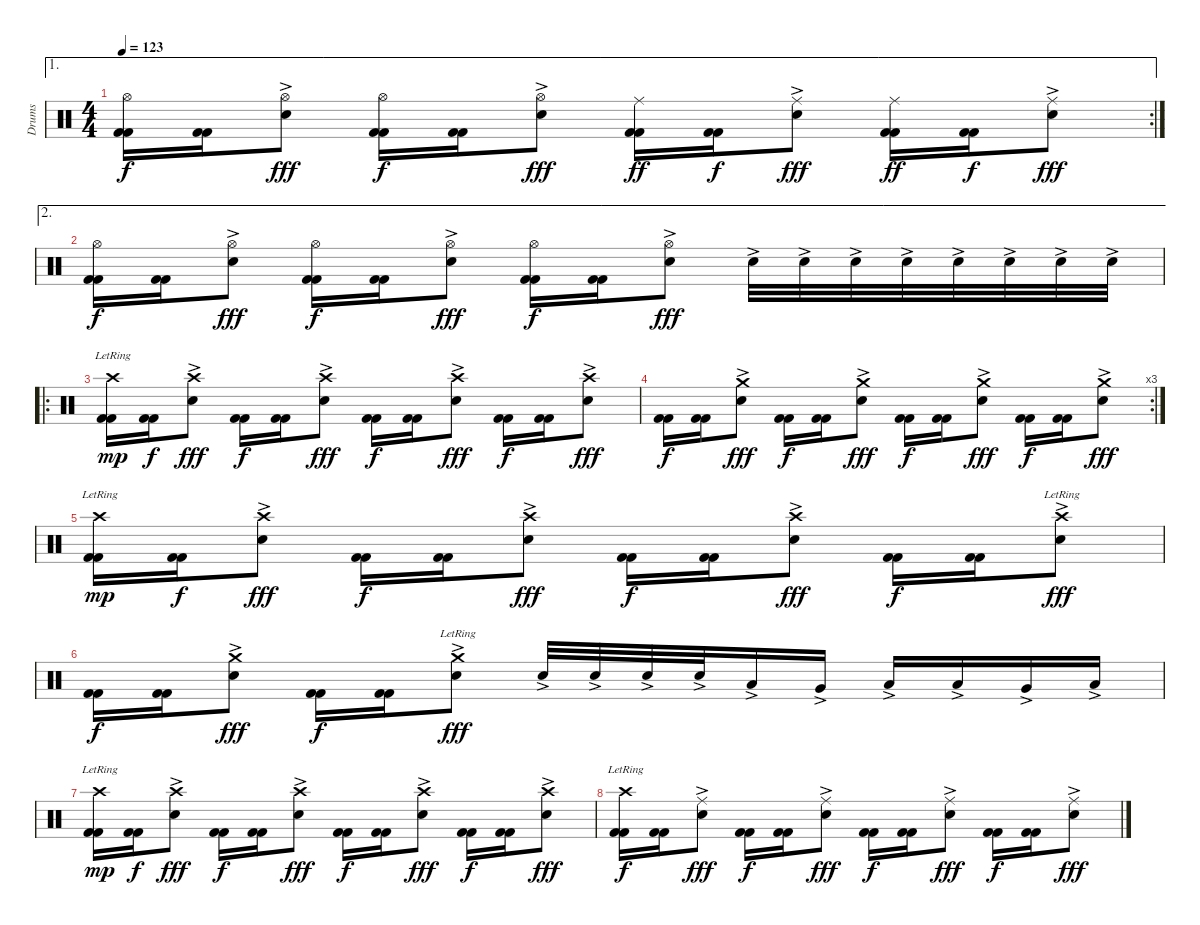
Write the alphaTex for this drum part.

\track ("Drums" "Drums") {instrument percussion}
\staff {score}
\articulation defaults
\ae 1
\rc 2
\ts (4 4)
\tempo 123
\clef neutral
\ks c
("Hi-Hat (open)" "Kick (hit) 2" "Kick (hit) 2").16{dy f} ("Kick (hit) 2" "Kick (hit) 2").16 ("Hi-Hat (open)" "Electric Snare (hit)"{ac}).8{dy fff} ("Hi-Hat (open)" "Kick (hit) 2" "Kick (hit) 2").16{dy f} ("Kick (hit) 2" "Kick (hit) 2").16 ("Hi-Hat (open)" "Electric Snare (hit)"{ac}).8{dy fff} ("Ride (middle)" "Kick (hit) 2" "Kick (hit) 2").16{dy ff} ("Kick (hit) 2" "Kick (hit) 2").16{dy f} ("Ride (middle)" "Electric Snare (hit)"{ac}).8{dy fff} ("Ride (middle)" "Kick (hit) 2" "Kick (hit) 2").16{dy ff} ("Kick (hit) 2" "Kick (hit) 2").16{dy f} ("Ride (middle)" "Electric Snare (hit)"{ac}).8{dy fff} |
\ae 2
("Hi-Hat (open)" "Kick (hit) 2" "Kick (hit) 2").16{dy f} ("Kick (hit) 2" "Kick (hit) 2").16 ("Hi-Hat (open)" "Electric Snare (hit)"{ac}).8{dy fff} ("Hi-Hat (open)" "Kick (hit) 2" "Kick (hit) 2").16{dy f} ("Kick (hit) 2" "Kick (hit) 2").16 ("Hi-Hat (open)" "Electric Snare (hit)"{ac}).8{dy fff} ("Hi-Hat (open)" "Kick (hit) 2" "Kick (hit) 2").16{dy f} ("Kick (hit) 2" "Kick (hit) 2").16 ("Hi-Hat (open)" "Electric Snare (hit)"{ac}).8{dy fff} "Electric Snare (hit)"{ac}.32 "Electric Snare (hit)"{ac}.32 "Electric Snare (hit)"{ac}.32 "Electric Snare (hit)"{ac}.32 "Electric Snare (hit)"{ac}.32 "Electric Snare (hit)"{ac}.32 "Electric Snare (hit)"{ac}.32 "Electric Snare (hit)"{ac}.32 |
\ro
("Crash high (hit)"{lr} "Kick (hit) 2" "Kick (hit) 2").16{dy mp} ("Kick (hit) 2" "Kick (hit) 2").16{dy f} ("Crash high (hit)" "Electric Snare (hit)"{ac}).8{dy fff} ("Kick (hit) 2" "Kick (hit) 2").16{dy f} ("Kick (hit) 2" "Kick (hit) 2").16 ("Crash high (hit)" "Electric Snare (hit)"{ac}).8{dy fff} ("Kick (hit) 2" "Kick (hit) 2").16{dy f} ("Kick (hit) 2" "Kick (hit) 2").16 ("Crash high (hit)" "Electric Snare (hit)"{ac}).8{dy fff} ("Kick (hit) 2" "Kick (hit) 2").16{dy f} ("Kick (hit) 2" "Kick (hit) 2").16 ("Crash high (hit)" "Electric Snare (hit)"{ac}).8{dy fff} |
\rc 3
("Kick (hit) 2" "Kick (hit) 2").16{dy f} ("Kick (hit) 2" "Kick (hit) 2").16 ("Crash medium (hit)" "Electric Snare (hit)"{ac}).8{dy fff} ("Kick (hit) 2" "Kick (hit) 2").16{dy f} ("Kick (hit) 2" "Kick (hit) 2").16 ("Crash medium (hit)" "Electric Snare (hit)"{ac}).8{dy fff} ("Kick (hit) 2" "Kick (hit) 2").16{dy f} ("Kick (hit) 2" "Kick (hit) 2").16 ("Crash medium (hit)" "Electric Snare (hit)"{ac}).8{dy fff} ("Kick (hit) 2" "Kick (hit) 2").16{dy f} ("Kick (hit) 2" "Kick (hit) 2").16 ("Crash medium (hit)" "Electric Snare (hit)"{ac}).8{dy fff} |
("Crash high (hit)"{lr} "Kick (hit) 2" "Kick (hit) 2").16{dy mp} ("Kick (hit) 2" "Kick (hit) 2").16{dy f} ("Crash high (hit)" "Electric Snare (hit)"{ac}).8{dy fff} ("Kick (hit) 2" "Kick (hit) 2").16{dy f} ("Kick (hit) 2" "Kick (hit) 2").16 ("Crash high (hit)" "Electric Snare (hit)"{ac}).8{dy fff} ("Kick (hit) 2" "Kick (hit) 2").16{dy f} ("Kick (hit) 2" "Kick (hit) 2").16 ("Crash high (hit)" "Electric Snare (hit)"{ac}).8{dy fff} ("Kick (hit) 2" "Kick (hit) 2").16{dy f} ("Kick (hit) 2" "Kick (hit) 2").16 ("Crash high (hit)"{lr} "Electric Snare (hit)"{ac lr}).8{dy fff} |
("Kick (hit) 2" "Kick (hit) 2").16{dy f} ("Kick (hit) 2" "Kick (hit) 2").16 ("Crash medium (hit)"{ac} "Electric Snare (hit)").8{dy fff} ("Kick (hit) 2" "Kick (hit) 2").16{dy f} ("Kick (hit) 2" "Kick (hit) 2").16 ("Crash medium (hit)"{lr} "Electric Snare (hit)"{ac}).8{dy fff} "Electric Snare (hit)"{ac}.32 "Electric Snare (hit)"{ac}.32 "Electric Snare (hit)"{ac}.32 "Electric Snare (hit)"{ac}.32 "Low Tom (hit)"{ac}.16 "Very Low Tom (hit)"{ac}.16 "Low Floor Tom (hit)"{ac}.16 "Low Tom (hit)"{ac}.16 "Very Low Tom (hit)"{ac}.16 "Low Floor Tom (hit)"{ac}.16 |
("Crash high (hit)"{lr} "Kick (hit) 2" "Kick (hit) 2").16{dy mp} ("Kick (hit) 2" "Kick (hit) 2").16{dy f} ("Crash high (hit)" "Electric Snare (hit)"{ac}).8{dy fff} ("Kick (hit) 2" "Kick (hit) 2").16{dy f} ("Kick (hit) 2" "Kick (hit) 2").16 ("Crash high (hit)" "Electric Snare (hit)"{ac}).8{dy fff} ("Kick (hit) 2" "Kick (hit) 2").16{dy f} ("Kick (hit) 2" "Kick (hit) 2").16 ("Crash high (hit)" "Electric Snare (hit)"{ac}).8{dy fff} ("Kick (hit) 2" "Kick (hit) 2").16{dy f} ("Kick (hit) 2" "Kick (hit) 2").16 ("Crash high (hit)" "Electric Snare (hit)"{ac}).8{dy fff} |
("Crash high (hit)"{lr} "Kick (hit) 2" "Kick (hit) 2").16{dy f} ("Kick (hit) 2" "Kick (hit) 2").16 ("Ride (middle)" "Electric Snare (hit)"{ac}).8{dy fff} ("Kick (hit) 2" "Kick (hit) 2").16{dy f} ("Kick (hit) 2" "Kick (hit) 2").16 ("Ride (middle)" "Electric Snare (hit)"{ac}).8{dy fff} ("Kick (hit) 2" "Kick (hit) 2").16{dy f} ("Kick (hit) 2" "Kick (hit) 2").16 ("Ride (middle)" "Electric Snare (hit)"{ac}).8{dy fff} ("Kick (hit) 2" "Kick (hit) 2").16{dy f} ("Kick (hit) 2" "Kick (hit) 2").16 ("Ride (middle)" "Electric Snare (hit)"{ac}).8{dy fff}
